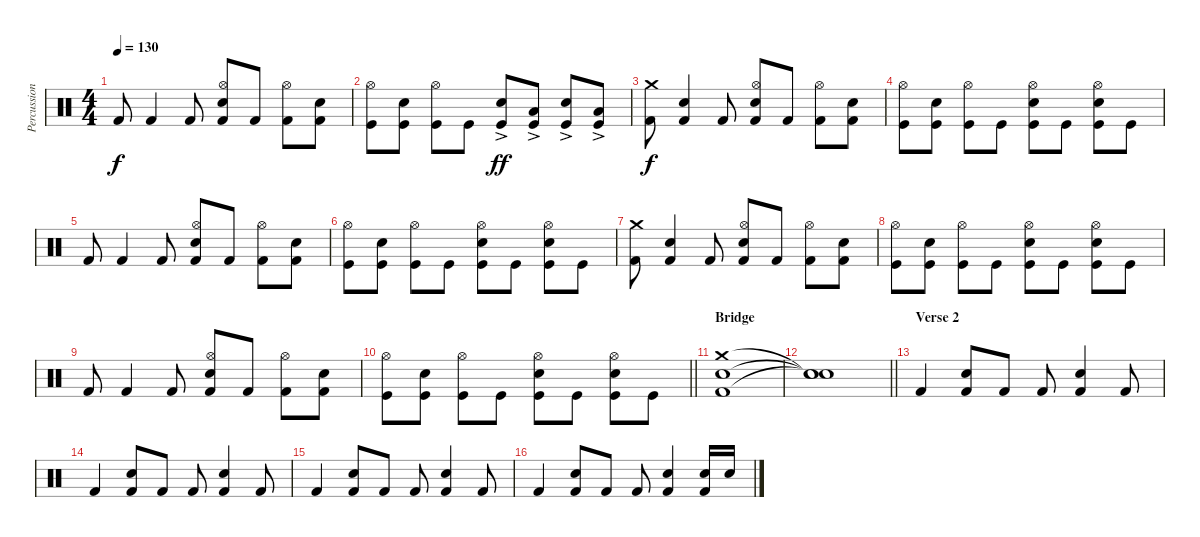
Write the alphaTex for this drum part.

\track ("Percussion" "Percussion") {instrument percussion}
\staff {score}
\articulation defaults
\ts (4 4)
\tempo 130
\clef neutral
\ks c "Kick (hit) 2".8{dy f} "Kick (hit) 2".4 "Kick (hit) 2".8
("Hi-Hat (open)" "Snare (hit) 2" "Kick (hit) 2").8 "Kick (hit) 2".8 ("Hi-Hat (open)" "Kick (hit) 2").8 ("Snare (hit) 2" "Kick (hit) 2").8 |
("Hi-Hat (open)" "Kick (hit)").8 ("Snare (hit) 2" "Kick (hit)").8 ("Hi-Hat (open)" "Kick (hit)").8 "Kick (hit)".8 ("Snare (hit) 2"{ac} "Kick (hit)").8{dy ff} ("Low Floor Tom (hit)"{ac} "Kick (hit)").8 ("Snare (hit) 2"{ac} "Kick (hit)").8 ("Low Floor Tom (hit)"{ac} "Kick (hit)").8 |
("Crash medium (hit)" "Kick (hit) 2").8{dy f} ("Snare (hit) 2" "Kick (hit) 2").4 "Kick (hit) 2".8 ("Hi-Hat (open)" "Snare (hit) 2" "Kick (hit) 2").8 "Kick (hit) 2".8 ("Hi-Hat (open)" "Kick (hit) 2").8 ("Snare (hit) 2" "Kick (hit) 2").8 |
("Hi-Hat (open)" "Kick (hit)").8 ("Snare (hit) 2" "Kick (hit)").8 ("Hi-Hat (open)" "Kick (hit)").8 "Kick (hit)".8 ("Hi-Hat (open)" "Snare (hit) 2" "Kick (hit)").8 "Kick (hit)".8 ("Hi-Hat (open)" "Snare (hit) 2" "Kick (hit)").8 "Kick (hit)".8 |
"Kick (hit) 2".8 "Kick (hit) 2".4 "Kick (hit) 2".8 ("Hi-Hat (open)" "Snare (hit) 2" "Kick (hit) 2").8 "Kick (hit) 2".8 ("Hi-Hat (open)" "Kick (hit) 2").8 ("Snare (hit) 2" "Kick (hit) 2").8 |
("Hi-Hat (open)" "Kick (hit)").8 ("Snare (hit) 2" "Kick (hit)").8 ("Hi-Hat (open)" "Kick (hit)").8 "Kick (hit)".8 ("Hi-Hat (open)" "Snare (hit) 2" "Kick (hit)").8 "Kick (hit)".8 ("Hi-Hat (open)" "Snare (hit) 2" "Kick (hit)").8 "Kick (hit)".8 |
("Crash medium (hit)" "Kick (hit) 2").8 ("Snare (hit) 2" "Kick (hit) 2").4 "Kick (hit) 2".8 ("Hi-Hat (open)" "Snare (hit) 2" "Kick (hit) 2").8 "Kick (hit) 2".8 ("Hi-Hat (open)" "Kick (hit) 2").8 ("Snare (hit) 2" "Kick (hit) 2").8 |
("Hi-Hat (open)" "Kick (hit)").8 ("Snare (hit) 2" "Kick (hit)").8 ("Hi-Hat (open)" "Kick (hit)").8 "Kick (hit)".8 ("Hi-Hat (open)" "Snare (hit) 2" "Kick (hit)").8 "Kick (hit)".8 ("Hi-Hat (open)" "Snare (hit) 2" "Kick (hit)").8 "Kick (hit)".8 |
"Kick (hit) 2".8 "Kick (hit) 2".4 "Kick (hit) 2".8 ("Hi-Hat (open)" "Snare (hit) 2" "Kick (hit) 2").8 "Kick (hit) 2".8 ("Hi-Hat (open)" "Kick (hit) 2").8 ("Snare (hit) 2" "Kick (hit) 2").8 |
\barLineRight lightlight
("Hi-Hat (open)" "Kick (hit)").8 ("Snare (hit) 2" "Kick (hit)").8 ("Hi-Hat (open)" "Kick (hit)").8 "Kick (hit)".8 ("Hi-Hat (open)" "Snare (hit) 2" "Kick (hit)").8 "Kick (hit)".8 ("Hi-Hat (open)" "Snare (hit) 2" "Kick (hit)").8 "Kick (hit)".8 |
\section ("" "Bridge")
("Crash medium (hit)" "Snare (hit) 2" "Kick (hit) 2").1 |
\barLineRight lightlight
("Snare (hit)"{t} "Snare (hit)"{t} "Snare (hit)"{t}).1 |
\section ("" "Verse 2")
"Kick (hit) 2".4 ("Snare (hit) 2" "Kick (hit) 2").8 "Kick (hit) 2".8 "Kick (hit) 2".8 ("Snare (hit) 2" "Kick (hit) 2").4 "Kick (hit) 2".8 |
"Kick (hit) 2".4 ("Snare (hit) 2" "Kick (hit) 2").8 "Kick (hit) 2".8 "Kick (hit) 2".8 ("Snare (hit) 2" "Kick (hit) 2").4 "Kick (hit) 2".8 |
"Kick (hit) 2".4 ("Snare (hit) 2" "Kick (hit) 2").8 "Kick (hit) 2".8 "Kick (hit) 2".8 ("Snare (hit) 2" "Kick (hit) 2").4 "Kick (hit) 2".8 |
"Kick (hit) 2".4 ("Snare (hit) 2" "Kick (hit) 2").8 "Kick (hit) 2".8 "Kick (hit) 2".8 ("Snare (hit) 2" "Kick (hit) 2").4 ("Snare (hit) 2" "Kick (hit) 2").16 "Snare (hit) 2".16
